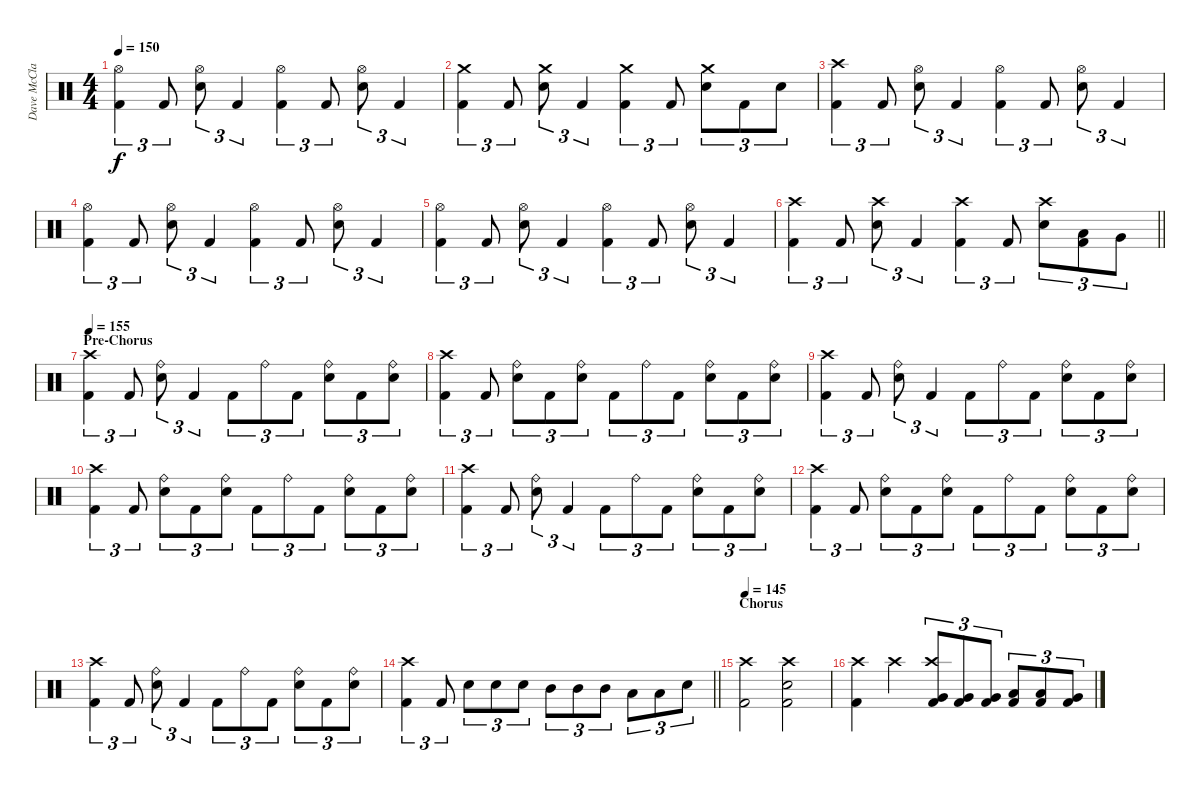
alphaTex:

\track ("Dave McClain" "Dave McCla") {instrument percussion}
\staff {score}
\articulation defaults
\ts (4 4)
\tempo 150
\clef neutral
\ks c
("Hi-Hat (open)" "Kick (hit) 2").4{tu (3 2) dy f} "Kick (hit) 2".8{tu (3 2)} ("Hi-Hat (open)" "Snare (hit) 2").8{tu (3 2)} "Kick (hit) 2".4{tu (3 2)} ("Hi-Hat (open)" "Kick (hit) 2").4{tu (3 2)} "Kick (hit) 2".8{tu (3 2)} ("Hi-Hat (open)" "Snare (hit) 2").8{tu (3 2)} "Kick (hit) 2".4{tu (3 2)} |
("Crash medium (hit)" "Kick (hit) 2").4{tu (3 2)} "Kick (hit) 2".8{tu (3 2)} ("Crash medium (hit)" "Snare (hit) 2").8{tu (3 2)} "Kick (hit) 2".4{tu (3 2)} ("Crash medium (hit)" "Kick (hit) 2").4{tu (3 2)} "Kick (hit) 2".8{tu (3 2)} ("Crash medium (hit)" "Snare (hit) 2").8{tu (3 2)} "Kick (hit) 2".8{tu (3 2)} "Snare (hit) 2".8{tu (3 2)} |
("Crash high (hit)" "Kick (hit) 2").4{tu (3 2)} "Kick (hit) 2".8{tu (3 2)} ("Hi-Hat (open)" "Snare (hit) 2").8{tu (3 2)} "Kick (hit) 2".4{tu (3 2)} ("Hi-Hat (open)" "Kick (hit) 2").4{tu (3 2)} "Kick (hit) 2".8{tu (3 2)} ("Hi-Hat (open)" "Snare (hit) 2").8{tu (3 2)} "Kick (hit) 2".4{tu (3 2)} |
("Hi-Hat (open)" "Kick (hit) 2").4{tu (3 2)} "Kick (hit) 2".8{tu (3 2)} ("Hi-Hat (open)" "Snare (hit) 2").8{tu (3 2)} "Kick (hit) 2".4{tu (3 2)} ("Hi-Hat (open)" "Kick (hit) 2").4{tu (3 2)} "Kick (hit) 2".8{tu (3 2)} ("Hi-Hat (open)" "Snare (hit) 2").8{tu (3 2)} "Kick (hit) 2".4{tu (3 2)} |
("Hi-Hat (open)" "Kick (hit) 2").4{tu (3 2)} "Kick (hit) 2".8{tu (3 2)} ("Hi-Hat (open)" "Snare (hit) 2").8{tu (3 2)} "Kick (hit) 2".4{tu (3 2)} ("Hi-Hat (open)" "Kick (hit) 2").4{tu (3 2)} "Kick (hit) 2".8{tu (3 2)} ("Hi-Hat (open)" "Snare (hit) 2").8{tu (3 2)} "Kick (hit) 2".4{tu (3 2)} |
\barLineRight lightlight
("Crash high (hit)" "Kick (hit) 2").4{tu (3 2)} "Kick (hit) 2".8{tu (3 2)} ("Crash high (hit)" "Snare (hit) 2").8{tu (3 2)} "Kick (hit) 2".4{tu (3 2)} ("Crash high (hit)" "Kick (hit) 2").4{tu (3 2)} "Kick (hit) 2".8{tu (3 2)} ("Crash high (hit)" "Snare (hit) 2").8{tu (3 2)} ("Low Tom (hit)" "Kick (hit) 2").8{tu (3 2)} "Very Low Tom (hit)".8{tu (3 2)} |
\section ("" "Pre-Chorus")
\tempo 155
("Crash high (hit)" "Kick (hit) 2").4{tu (3 2)} "Kick (hit) 2".8{tu (3 2)} ("Ride (bell)" "Snare (hit) 2").8{tu (3 2)} "Kick (hit) 2".4{tu (3 2)} "Kick (hit) 2".8{tu (3 2)} "Ride (bell)".8{tu (3 2)} "Kick (hit) 2".8{tu (3 2)} ("Ride (bell)" "Snare (hit) 2").8{tu (3 2)} "Kick (hit) 2".8{tu (3 2)} ("Ride (bell)" "Snare (hit) 2").8{tu (3 2)} |
("Crash high (hit)" "Kick (hit) 2").4{tu (3 2)} "Kick (hit) 2".8{tu (3 2)} ("Ride (bell)" "Snare (hit) 2").8{tu (3 2)} "Kick (hit) 2".8{tu (3 2)} ("Ride (bell)" "Snare (hit) 2").8{tu (3 2)} "Kick (hit) 2".8{tu (3 2)} "Ride (bell)".8{tu (3 2)} "Kick (hit) 2".8{tu (3 2)} ("Ride (bell)" "Snare (hit) 2").8{tu (3 2)} "Kick (hit) 2".8{tu (3 2)} ("Ride (bell)" "Snare (hit) 2").8{tu (3 2)} |
("Crash high (hit)" "Kick (hit) 2").4{tu (3 2)} "Kick (hit) 2".8{tu (3 2)} ("Ride (bell)" "Snare (hit) 2").8{tu (3 2)} "Kick (hit) 2".4{tu (3 2)} "Kick (hit) 2".8{tu (3 2)} "Ride (bell)".8{tu (3 2)} "Kick (hit) 2".8{tu (3 2)} ("Ride (bell)" "Snare (hit) 2").8{tu (3 2)} "Kick (hit) 2".8{tu (3 2)} ("Ride (bell)" "Snare (hit) 2").8{tu (3 2)} |
("Crash high (hit)" "Kick (hit) 2").4{tu (3 2)} "Kick (hit) 2".8{tu (3 2)} ("Ride (bell)" "Snare (hit) 2").8{tu (3 2)} "Kick (hit) 2".8{tu (3 2)} ("Ride (bell)" "Snare (hit) 2").8{tu (3 2)} "Kick (hit) 2".8{tu (3 2)} "Ride (bell)".8{tu (3 2)} "Kick (hit) 2".8{tu (3 2)} ("Ride (bell)" "Snare (hit) 2").8{tu (3 2)} "Kick (hit) 2".8{tu (3 2)} ("Ride (bell)" "Snare (hit) 2").8{tu (3 2)} |
("Crash high (hit)" "Kick (hit) 2").4{tu (3 2)} "Kick (hit) 2".8{tu (3 2)} ("Ride (bell)" "Snare (hit) 2").8{tu (3 2)} "Kick (hit) 2".4{tu (3 2)} "Kick (hit) 2".8{tu (3 2)} "Ride (bell)".8{tu (3 2)} "Kick (hit) 2".8{tu (3 2)} ("Ride (bell)" "Snare (hit) 2").8{tu (3 2)} "Kick (hit) 2".8{tu (3 2)} ("Ride (bell)" "Snare (hit) 2").8{tu (3 2)} |
("Crash high (hit)" "Kick (hit) 2").4{tu (3 2)} "Kick (hit) 2".8{tu (3 2)} ("Ride (bell)" "Snare (hit) 2").8{tu (3 2)} "Kick (hit) 2".8{tu (3 2)} ("Ride (bell)" "Snare (hit) 2").8{tu (3 2)} "Kick (hit) 2".8{tu (3 2)} "Ride (bell)".8{tu (3 2)} "Kick (hit) 2".8{tu (3 2)} ("Ride (bell)" "Snare (hit) 2").8{tu (3 2)} "Kick (hit) 2".8{tu (3 2)} ("Ride (bell)" "Snare (hit) 2").8{tu (3 2)} |
("Crash high (hit)" "Kick (hit) 2").4{tu (3 2)} "Kick (hit) 2".8{tu (3 2)} ("Ride (bell)" "Snare (hit) 2").8{tu (3 2)} "Kick (hit) 2".4{tu (3 2)} "Kick (hit) 2".8{tu (3 2)} "Ride (bell)".8{tu (3 2)} "Kick (hit) 2".8{tu (3 2)} ("Ride (bell)" "Snare (hit) 2").8{tu (3 2)} "Kick (hit) 2".8{tu (3 2)} ("Ride (bell)" "Snare (hit) 2").8{tu (3 2)} |
\barLineRight lightlight
("Crash high (hit)" "Kick (hit) 2").4{tu (3 2)} "Kick (hit) 2".8{tu (3 2)} "Snare (hit) 2".8{tu (3 2)} "Snare (hit) 2".8{tu (3 2)} "Snare (hit) 2".8{tu (3 2)} "Mid Tom (hit)".8{tu (3 2)} "Mid Tom (hit)".8{tu (3 2)} "Mid Tom (hit)".8{tu (3 2)} "Low Tom (hit)".8{tu (3 2)} "Low Tom (hit)".8{tu (3 2)} "Snare (hit) 2".8{tu (3 2)} |
\section ("" "Chorus")
\tempo 145
("Crash high (hit)" "Kick (hit) 2").2 ("Crash high (hit)" "Snare (hit) 2" "Kick (hit) 2").2 |
("Crash high (hit)" "Kick (hit) 2").4 "Crash high (hit)".4 ("Crash high (hit)" "Very Low Tom (hit)" "Kick (hit) 2").8{tu (3 2)} ("Very Low Tom (hit)" "Kick (hit) 2").8{tu (3 2)} ("Very Low Tom (hit)" "Kick (hit) 2").8{tu (3 2)} ("Low Tom (hit)" "Kick (hit) 2").8{tu (3 2)} ("Low Tom (hit)" "Kick (hit) 2").8{tu (3 2)} ("Very Low Tom (hit)" "Kick (hit) 2").8{tu (3 2)}
